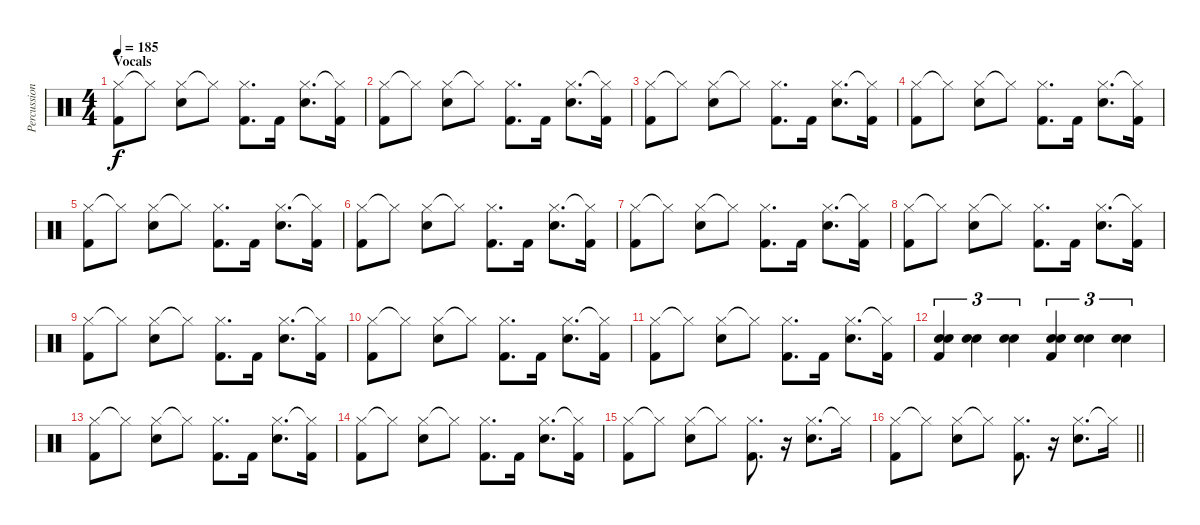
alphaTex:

\track ("Percussion" "Percussion") {instrument percussion}
\staff {score}
\articulation defaults
\ts (4 4)
\section ("" "Vocals")
\tempo 185
\clef neutral
\ks c
("Hi-Hat (closed)" "Kick (hit) 2").8{dy f} "Hi-Hat (closed)"{t}.8 ("Hi-Hat (closed)" "Snare (hit) 2").8 "Hi-Hat (closed)"{t}.8 ("Hi-Hat (closed)" "Kick (hit) 2").8{d} "Kick (hit) 2".16 ("Hi-Hat (closed)" "Snare (hit) 2").8{d} ("Hi-Hat (closed)"{t} "Kick (hit) 2").16 |
("Hi-Hat (closed)" "Kick (hit) 2").8 "Hi-Hat (closed)"{t}.8 ("Hi-Hat (closed)" "Snare (hit) 2").8 "Hi-Hat (closed)"{t}.8 ("Hi-Hat (closed)" "Kick (hit) 2").8{d} "Kick (hit) 2".16 ("Hi-Hat (closed)" "Snare (hit) 2").8{d} ("Hi-Hat (closed)"{t} "Kick (hit) 2").16 |
("Hi-Hat (closed)" "Kick (hit) 2").8 "Hi-Hat (closed)"{t}.8 ("Hi-Hat (closed)" "Snare (hit) 2").8 "Hi-Hat (closed)"{t}.8 ("Hi-Hat (closed)" "Kick (hit) 2").8{d} "Kick (hit) 2".16 ("Hi-Hat (closed)" "Snare (hit) 2").8{d} ("Hi-Hat (closed)"{t} "Kick (hit) 2").16 |
("Hi-Hat (closed)" "Kick (hit) 2").8 "Hi-Hat (closed)"{t}.8 ("Hi-Hat (closed)" "Snare (hit) 2").8 "Hi-Hat (closed)"{t}.8 ("Hi-Hat (closed)" "Kick (hit) 2").8{d} "Kick (hit) 2".16 ("Hi-Hat (closed)" "Snare (hit) 2").8{d} ("Hi-Hat (closed)"{t} "Kick (hit) 2").16 |
("Hi-Hat (closed)" "Kick (hit) 2").8 "Hi-Hat (closed)"{t}.8 ("Hi-Hat (closed)" "Snare (hit) 2").8 "Hi-Hat (closed)"{t}.8 ("Hi-Hat (closed)" "Kick (hit) 2").8{d} "Kick (hit) 2".16 ("Hi-Hat (closed)" "Snare (hit) 2").8{d} ("Hi-Hat (closed)"{t} "Kick (hit) 2").16 |
("Hi-Hat (closed)" "Kick (hit) 2").8 "Hi-Hat (closed)"{t}.8 ("Hi-Hat (closed)" "Snare (hit) 2").8 "Hi-Hat (closed)"{t}.8 ("Hi-Hat (closed)" "Kick (hit) 2").8{d} "Kick (hit) 2".16 ("Hi-Hat (closed)" "Snare (hit) 2").8{d} ("Hi-Hat (closed)"{t} "Kick (hit) 2").16 |
("Hi-Hat (closed)" "Kick (hit) 2").8 "Hi-Hat (closed)"{t}.8 ("Hi-Hat (closed)" "Snare (hit) 2").8 "Hi-Hat (closed)"{t}.8 ("Hi-Hat (closed)" "Kick (hit) 2").8{d} "Kick (hit) 2".16 ("Hi-Hat (closed)" "Snare (hit) 2").8{d} ("Hi-Hat (closed)"{t} "Kick (hit) 2").16 |
("Hi-Hat (closed)" "Kick (hit) 2").8 "Hi-Hat (closed)"{t}.8 ("Hi-Hat (closed)" "Snare (hit) 2").8 "Hi-Hat (closed)"{t}.8 ("Hi-Hat (closed)" "Kick (hit) 2").8{d} "Kick (hit) 2".16 ("Hi-Hat (closed)" "Snare (hit) 2").8{d} ("Hi-Hat (closed)"{t} "Kick (hit) 2").16 |
("Hi-Hat (closed)" "Kick (hit) 2").8 "Hi-Hat (closed)"{t}.8 ("Hi-Hat (closed)" "Snare (hit) 2").8 "Hi-Hat (closed)"{t}.8 ("Hi-Hat (closed)" "Kick (hit) 2").8{d} "Kick (hit) 2".16 ("Hi-Hat (closed)" "Snare (hit) 2").8{d} ("Hi-Hat (closed)"{t} "Kick (hit) 2").16 |
("Hi-Hat (closed)" "Kick (hit) 2").8 "Hi-Hat (closed)"{t}.8 ("Hi-Hat (closed)" "Snare (hit) 2").8 "Hi-Hat (closed)"{t}.8 ("Hi-Hat (closed)" "Kick (hit) 2").8{d} "Kick (hit) 2".16 ("Hi-Hat (closed)" "Snare (hit) 2").8{d} ("Hi-Hat (closed)"{t} "Kick (hit) 2").16 |
("Hi-Hat (closed)" "Kick (hit) 2").8 "Hi-Hat (closed)"{t}.8 ("Hi-Hat (closed)" "Snare (hit) 2").8 "Hi-Hat (closed)"{t}.8 ("Hi-Hat (closed)" "Kick (hit) 2").8{d} "Kick (hit) 2".16 ("Hi-Hat (closed)" "Snare (hit) 2").8{d} ("Hi-Hat (closed)"{t} "Kick (hit) 2").16 |
("Snare (hit) 2" "Snare (hit) 2" "Kick (hit) 2").4{tu (3 2)} ("Snare (hit) 2" "Snare (hit) 2").4{tu (3 2)} ("Snare (hit) 2" "Snare (hit) 2").4{tu (3 2)} ("Snare (hit) 2" "Snare (hit) 2" "Kick (hit) 2").4{tu (3 2)} ("Snare (hit) 2" "Snare (hit) 2").4{tu (3 2)} ("Snare (hit) 2" "Snare (hit) 2").4{tu (3 2)} |
("Hi-Hat (closed)" "Kick (hit) 2").8 "Hi-Hat (closed)"{t}.8 ("Hi-Hat (closed)" "Snare (hit) 2").8 "Hi-Hat (closed)"{t}.8 ("Hi-Hat (closed)" "Kick (hit) 2").8{d} "Kick (hit) 2".16 ("Hi-Hat (closed)" "Snare (hit) 2").8{d} ("Hi-Hat (closed)"{t} "Kick (hit) 2").16 |
("Hi-Hat (closed)" "Kick (hit) 2").8 "Hi-Hat (closed)"{t}.8 ("Hi-Hat (closed)" "Snare (hit) 2").8 "Hi-Hat (closed)"{t}.8 ("Hi-Hat (closed)" "Kick (hit) 2").8{d} "Kick (hit) 2".16 ("Hi-Hat (closed)" "Snare (hit) 2").8{d} ("Hi-Hat (closed)"{t} "Kick (hit) 2").16 |
("Hi-Hat (closed)" "Kick (hit) 2").8 "Hi-Hat (closed)"{t}.8 ("Hi-Hat (closed)" "Snare (hit) 2").8 "Hi-Hat (closed)"{t}.8 ("Hi-Hat (closed)" "Kick (hit) 2").8{d} r.16 ("Hi-Hat (closed)" "Snare (hit) 2").8{d} "Hi-Hat (closed)"{t}.16 |
\barLineRight lightlight
("Hi-Hat (closed)" "Kick (hit) 2").8 "Hi-Hat (closed)"{t}.8 ("Hi-Hat (closed)" "Snare (hit) 2").8 "Hi-Hat (closed)"{t}.8 ("Hi-Hat (closed)" "Kick (hit) 2").8{d} r.16 ("Hi-Hat (closed)" "Snare (hit) 2").8{d} "Hi-Hat (closed)"{t}.16
